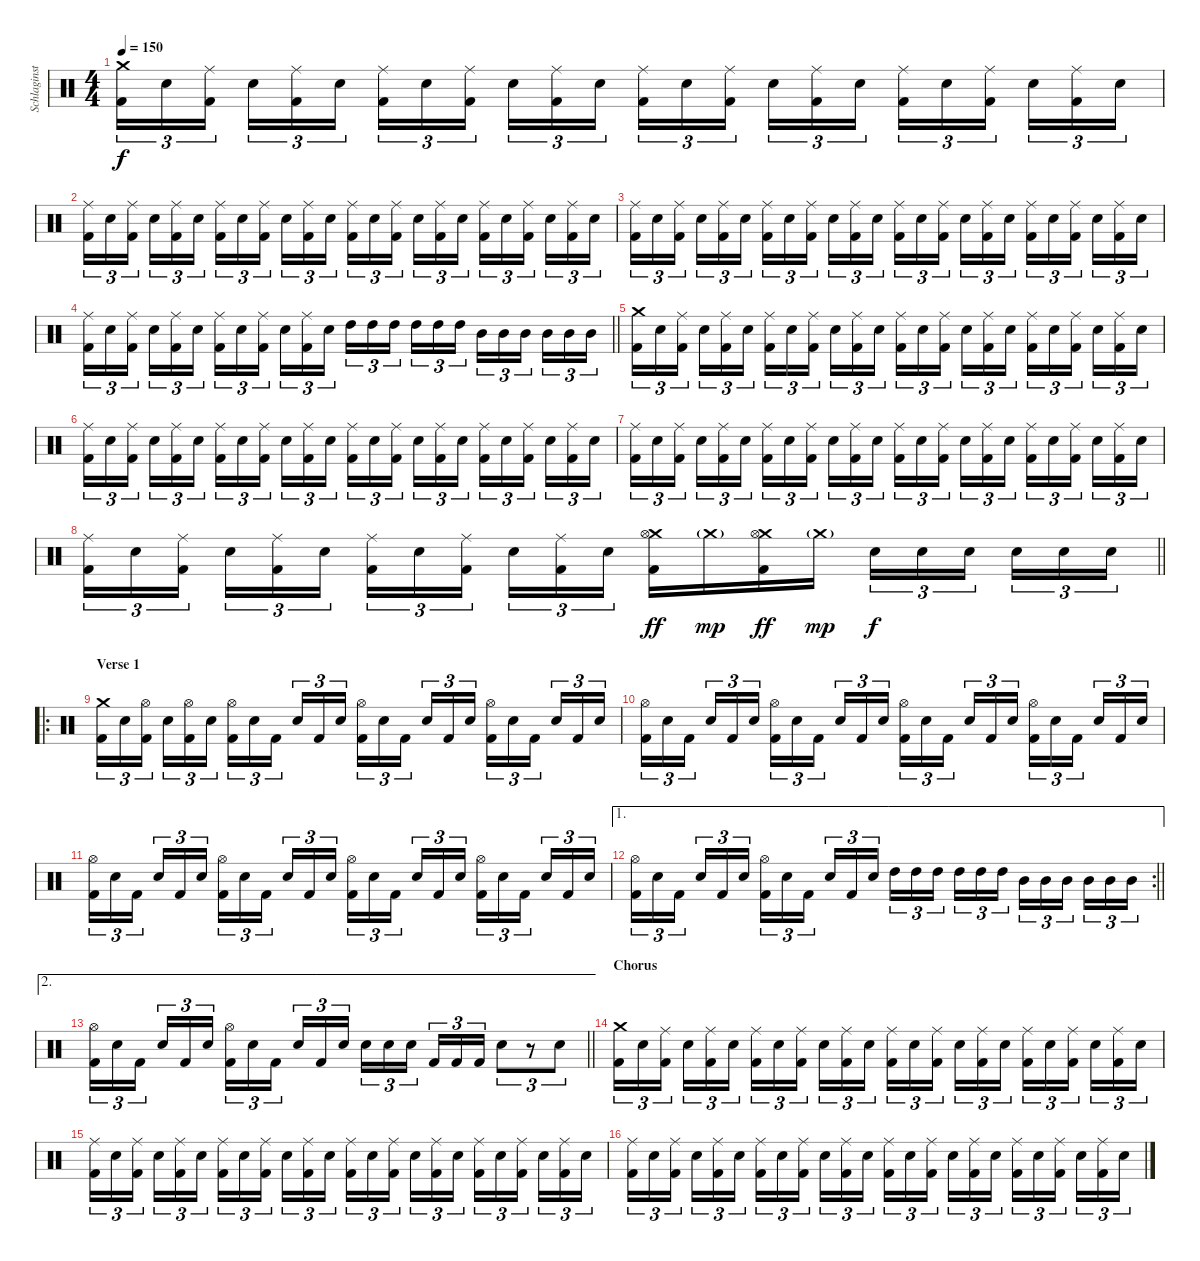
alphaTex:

\track ("Schlaginstrumente - Auswahl" "Schlaginst") {instrument percussion}
\staff {score}
\articulation defaults
\ts (4 4)
\tempo 150
\clef neutral
\ks c
("Crash medium (hit)" "Kick (hit) 2").16{tu (3 2) dy f} "Electric Snare (hit)".16{tu (3 2)} ("Ride (middle)" "Kick (hit) 2").16{tu (3 2) beam splitsecondary} "Electric Snare (hit)".16{tu (3 2)} ("Ride (middle)" "Kick (hit) 2").16{tu (3 2)} "Electric Snare (hit)".16{tu (3 2)} ("Ride (middle)" "Kick (hit) 2").16{tu (3 2)} "Electric Snare (hit)".16{tu (3 2)} ("Ride (middle)" "Kick (hit) 2").16{tu (3 2) beam splitsecondary} "Electric Snare (hit)".16{tu (3 2)} ("Ride (middle)" "Kick (hit) 2").16{tu (3 2)} "Electric Snare (hit)".16{tu (3 2)} ("Ride (middle)" "Kick (hit) 2").16{tu (3 2)} "Electric Snare (hit)".16{tu (3 2)} ("Ride (middle)" "Kick (hit) 2").16{tu (3 2) beam splitsecondary} "Electric Snare (hit)".16{tu (3 2)} ("Ride (middle)" "Kick (hit) 2").16{tu (3 2)} "Electric Snare (hit)".16{tu (3 2)} ("Ride (middle)" "Kick (hit) 2").16{tu (3 2)} "Electric Snare (hit)".16{tu (3 2)} ("Ride (middle)" "Kick (hit) 2").16{tu (3 2) beam splitsecondary} "Electric Snare (hit)".16{tu (3 2)} ("Ride (middle)" "Kick (hit) 2").16{tu (3 2)} "Electric Snare (hit)".16{tu (3 2)} |
("Ride (middle)" "Kick (hit) 2").16{tu (3 2)} "Electric Snare (hit)".16{tu (3 2)} ("Ride (middle)" "Kick (hit) 2").16{tu (3 2) beam splitsecondary} "Electric Snare (hit)".16{tu (3 2)} ("Ride (middle)" "Kick (hit) 2").16{tu (3 2)} "Electric Snare (hit)".16{tu (3 2)} ("Ride (middle)" "Kick (hit) 2").16{tu (3 2)} "Electric Snare (hit)".16{tu (3 2)} ("Ride (middle)" "Kick (hit) 2").16{tu (3 2) beam splitsecondary} "Electric Snare (hit)".16{tu (3 2)} ("Ride (middle)" "Kick (hit) 2").16{tu (3 2)} "Electric Snare (hit)".16{tu (3 2)} ("Ride (middle)" "Kick (hit) 2").16{tu (3 2)} "Electric Snare (hit)".16{tu (3 2)} ("Ride (middle)" "Kick (hit) 2").16{tu (3 2) beam splitsecondary} "Electric Snare (hit)".16{tu (3 2)} ("Ride (middle)" "Kick (hit) 2").16{tu (3 2)} "Electric Snare (hit)".16{tu (3 2)} ("Ride (middle)" "Kick (hit) 2").16{tu (3 2)} "Electric Snare (hit)".16{tu (3 2)} ("Ride (middle)" "Kick (hit) 2").16{tu (3 2) beam splitsecondary} "Electric Snare (hit)".16{tu (3 2)} ("Ride (middle)" "Kick (hit) 2").16{tu (3 2)} "Electric Snare (hit)".16{tu (3 2)} |
("Ride (middle)" "Kick (hit) 2").16{tu (3 2)} "Electric Snare (hit)".16{tu (3 2)} ("Ride (middle)" "Kick (hit) 2").16{tu (3 2) beam splitsecondary} "Electric Snare (hit)".16{tu (3 2)} ("Ride (middle)" "Kick (hit) 2").16{tu (3 2)} "Electric Snare (hit)".16{tu (3 2)} ("Ride (middle)" "Kick (hit) 2").16{tu (3 2)} "Electric Snare (hit)".16{tu (3 2)} ("Ride (middle)" "Kick (hit) 2").16{tu (3 2) beam splitsecondary} "Electric Snare (hit)".16{tu (3 2)} ("Ride (middle)" "Kick (hit) 2").16{tu (3 2)} "Electric Snare (hit)".16{tu (3 2)} ("Ride (middle)" "Kick (hit) 2").16{tu (3 2)} "Electric Snare (hit)".16{tu (3 2)} ("Ride (middle)" "Kick (hit) 2").16{tu (3 2) beam splitsecondary} "Electric Snare (hit)".16{tu (3 2)} ("Ride (middle)" "Kick (hit) 2").16{tu (3 2)} "Electric Snare (hit)".16{tu (3 2)} ("Ride (middle)" "Kick (hit) 2").16{tu (3 2)} "Electric Snare (hit)".16{tu (3 2)} ("Ride (middle)" "Kick (hit) 2").16{tu (3 2) beam splitsecondary} "Electric Snare (hit)".16{tu (3 2)} ("Ride (middle)" "Kick (hit) 2").16{tu (3 2)} "Electric Snare (hit)".16{tu (3 2)} |
\barLineRight lightlight
("Ride (middle)" "Kick (hit) 2").16{tu (3 2)} "Electric Snare (hit)".16{tu (3 2)} ("Ride (middle)" "Kick (hit) 2").16{tu (3 2) beam splitsecondary} "Electric Snare (hit)".16{tu (3 2)} ("Ride (middle)" "Kick (hit) 2").16{tu (3 2)} "Electric Snare (hit)".16{tu (3 2)} ("Ride (middle)" "Kick (hit) 2").16{tu (3 2)} "Electric Snare (hit)".16{tu (3 2)} ("Ride (middle)" "Kick (hit) 2").16{tu (3 2) beam splitsecondary} "Electric Snare (hit)".16{tu (3 2)} ("Ride (middle)" "Kick (hit) 2").16{tu (3 2)} "Electric Snare (hit)".16{tu (3 2)} "High Tom (hit)".16{tu (3 2)} "High Tom (hit)".16{tu (3 2)} "High Tom (hit)".16{tu (3 2) beam splitsecondary} "High Tom (hit)".16{tu (3 2)} "High Tom (hit)".16{tu (3 2)} "High Tom (hit)".16{tu (3 2)} "Mid Tom (hit)".16{tu (3 2)} "Mid Tom (hit)".16{tu (3 2)} "Mid Tom (hit)".16{tu (3 2) beam splitsecondary} "Mid Tom (hit)".16{tu (3 2)} "Mid Tom (hit)".16{tu (3 2)} "Mid Tom (hit)".16{tu (3 2)} |
("Crash medium (hit)" "Kick (hit) 2").16{tu (3 2)} "Electric Snare (hit)".16{tu (3 2)} ("Ride (middle)" "Kick (hit) 2").16{tu (3 2) beam splitsecondary} "Electric Snare (hit)".16{tu (3 2)} ("Ride (middle)" "Kick (hit) 2").16{tu (3 2)} "Electric Snare (hit)".16{tu (3 2)} ("Ride (middle)" "Kick (hit) 2").16{tu (3 2)} "Electric Snare (hit)".16{tu (3 2)} ("Ride (middle)" "Kick (hit) 2").16{tu (3 2) beam splitsecondary} "Electric Snare (hit)".16{tu (3 2)} ("Ride (middle)" "Kick (hit) 2").16{tu (3 2)} "Electric Snare (hit)".16{tu (3 2)} ("Ride (middle)" "Kick (hit) 2").16{tu (3 2)} "Electric Snare (hit)".16{tu (3 2)} ("Ride (middle)" "Kick (hit) 2").16{tu (3 2) beam splitsecondary} "Electric Snare (hit)".16{tu (3 2)} ("Ride (middle)" "Kick (hit) 2").16{tu (3 2)} "Electric Snare (hit)".16{tu (3 2)} ("Ride (middle)" "Kick (hit) 2").16{tu (3 2)} "Electric Snare (hit)".16{tu (3 2)} ("Ride (middle)" "Kick (hit) 2").16{tu (3 2) beam splitsecondary} "Electric Snare (hit)".16{tu (3 2)} ("Ride (middle)" "Kick (hit) 2").16{tu (3 2)} "Electric Snare (hit)".16{tu (3 2)} |
("Ride (middle)" "Kick (hit) 2").16{tu (3 2)} "Electric Snare (hit)".16{tu (3 2)} ("Ride (middle)" "Kick (hit) 2").16{tu (3 2) beam splitsecondary} "Electric Snare (hit)".16{tu (3 2)} ("Ride (middle)" "Kick (hit) 2").16{tu (3 2)} "Electric Snare (hit)".16{tu (3 2)} ("Ride (middle)" "Kick (hit) 2").16{tu (3 2)} "Electric Snare (hit)".16{tu (3 2)} ("Ride (middle)" "Kick (hit) 2").16{tu (3 2) beam splitsecondary} "Electric Snare (hit)".16{tu (3 2)} ("Ride (middle)" "Kick (hit) 2").16{tu (3 2)} "Electric Snare (hit)".16{tu (3 2)} ("Ride (middle)" "Kick (hit) 2").16{tu (3 2)} "Electric Snare (hit)".16{tu (3 2)} ("Ride (middle)" "Kick (hit) 2").16{tu (3 2) beam splitsecondary} "Electric Snare (hit)".16{tu (3 2)} ("Ride (middle)" "Kick (hit) 2").16{tu (3 2)} "Electric Snare (hit)".16{tu (3 2)} ("Ride (middle)" "Kick (hit) 2").16{tu (3 2)} "Electric Snare (hit)".16{tu (3 2)} ("Ride (middle)" "Kick (hit) 2").16{tu (3 2) beam splitsecondary} "Electric Snare (hit)".16{tu (3 2)} ("Ride (middle)" "Kick (hit) 2").16{tu (3 2)} "Electric Snare (hit)".16{tu (3 2)} |
("Ride (middle)" "Kick (hit) 2").16{tu (3 2)} "Electric Snare (hit)".16{tu (3 2)} ("Ride (middle)" "Kick (hit) 2").16{tu (3 2) beam splitsecondary} "Electric Snare (hit)".16{tu (3 2)} ("Ride (middle)" "Kick (hit) 2").16{tu (3 2)} "Electric Snare (hit)".16{tu (3 2)} ("Ride (middle)" "Kick (hit) 2").16{tu (3 2)} "Electric Snare (hit)".16{tu (3 2)} ("Ride (middle)" "Kick (hit) 2").16{tu (3 2) beam splitsecondary} "Electric Snare (hit)".16{tu (3 2)} ("Ride (middle)" "Kick (hit) 2").16{tu (3 2)} "Electric Snare (hit)".16{tu (3 2)} ("Ride (middle)" "Kick (hit) 2").16{tu (3 2)} "Electric Snare (hit)".16{tu (3 2)} ("Ride (middle)" "Kick (hit) 2").16{tu (3 2) beam splitsecondary} "Electric Snare (hit)".16{tu (3 2)} ("Ride (middle)" "Kick (hit) 2").16{tu (3 2)} "Electric Snare (hit)".16{tu (3 2)} ("Ride (middle)" "Kick (hit) 2").16{tu (3 2)} "Electric Snare (hit)".16{tu (3 2)} ("Ride (middle)" "Kick (hit) 2").16{tu (3 2) beam splitsecondary} "Electric Snare (hit)".16{tu (3 2)} ("Ride (middle)" "Kick (hit) 2").16{tu (3 2)} "Electric Snare (hit)".16{tu (3 2)} |
\barLineRight lightlight
("Ride (middle)" "Kick (hit) 2").16{tu (3 2)} "Electric Snare (hit)".16{tu (3 2)} ("Ride (middle)" "Kick (hit) 2").16{tu (3 2) beam splitsecondary} "Electric Snare (hit)".16{tu (3 2)} ("Ride (middle)" "Kick (hit) 2").16{tu (3 2)} "Electric Snare (hit)".16{tu (3 2)} ("Ride (middle)" "Kick (hit) 2").16{tu (3 2)} "Electric Snare (hit)".16{tu (3 2)} ("Ride (middle)" "Kick (hit) 2").16{tu (3 2) beam splitsecondary} "Electric Snare (hit)".16{tu (3 2)} ("Ride (middle)" "Kick (hit) 2").16{tu (3 2)} "Electric Snare (hit)".16{tu (3 2)} ("Crash medium (hit)" "Hi-Hat (open)" "Kick (hit) 2").16{dy ff} "Crash medium (hit)"{g}.16{dy mp} ("Crash medium (hit)" "Hi-Hat (open)" "Kick (hit) 2").16{dy ff} "Crash medium (hit)"{g}.16{dy mp} "Electric Snare (hit)".16{tu (3 2) dy f} "Electric Snare (hit)".16{tu (3 2)} "Electric Snare (hit)".16{tu (3 2) beam splitsecondary} "Electric Snare (hit)".16{tu (3 2)} "Electric Snare (hit)".16{tu (3 2)} "Electric Snare (hit)".16{tu (3 2)} |
\ro
\section ("" "Verse 1")
("Crash medium (hit)" "Kick (hit) 2").16{tu (3 2)} "Electric Snare (hit)".16{tu (3 2)} ("Hi-Hat (open)" "Kick (hit) 2").16{tu (3 2) beam splitsecondary} "Electric Snare (hit)".16{tu (3 2)} ("Hi-Hat (open)" "Kick (hit) 2").16{tu (3 2)} "Electric Snare (hit)".16{tu (3 2)} ("Hi-Hat (open)" "Kick (hit) 2").16{tu (3 2)} "Electric Snare (hit)".16{tu (3 2)} "Kick (hit) 2".16{tu (3 2) beam splitsecondary} "Electric Snare (hit)".16{tu (3 2)} "Kick (hit) 2".16{tu (3 2)} "Electric Snare (hit)".16{tu (3 2)} ("Hi-Hat (open)" "Kick (hit) 2").16{tu (3 2)} "Electric Snare (hit)".16{tu (3 2)} "Kick (hit) 2".16{tu (3 2) beam splitsecondary} "Electric Snare (hit)".16{tu (3 2)} "Kick (hit) 2".16{tu (3 2)} "Electric Snare (hit)".16{tu (3 2)} ("Hi-Hat (open)" "Kick (hit) 2").16{tu (3 2)} "Electric Snare (hit)".16{tu (3 2)} "Kick (hit) 2".16{tu (3 2) beam splitsecondary} "Electric Snare (hit)".16{tu (3 2)} "Kick (hit) 2".16{tu (3 2)} "Electric Snare (hit)".16{tu (3 2)} |
("Hi-Hat (open)" "Kick (hit) 2").16{tu (3 2)} "Electric Snare (hit)".16{tu (3 2)} "Kick (hit) 2".16{tu (3 2) beam splitsecondary} "Electric Snare (hit)".16{tu (3 2)} "Kick (hit) 2".16{tu (3 2)} "Electric Snare (hit)".16{tu (3 2)} ("Hi-Hat (open)" "Kick (hit) 2").16{tu (3 2)} "Electric Snare (hit)".16{tu (3 2)} "Kick (hit) 2".16{tu (3 2) beam splitsecondary} "Electric Snare (hit)".16{tu (3 2)} "Kick (hit) 2".16{tu (3 2)} "Electric Snare (hit)".16{tu (3 2)} ("Hi-Hat (open)" "Kick (hit) 2").16{tu (3 2)} "Electric Snare (hit)".16{tu (3 2)} "Kick (hit) 2".16{tu (3 2) beam splitsecondary} "Electric Snare (hit)".16{tu (3 2)} "Kick (hit) 2".16{tu (3 2)} "Electric Snare (hit)".16{tu (3 2)} ("Hi-Hat (open)" "Kick (hit) 2").16{tu (3 2)} "Electric Snare (hit)".16{tu (3 2)} "Kick (hit) 2".16{tu (3 2) beam splitsecondary} "Electric Snare (hit)".16{tu (3 2)} "Kick (hit) 2".16{tu (3 2)} "Electric Snare (hit)".16{tu (3 2)} |
("Hi-Hat (open)" "Kick (hit) 2").16{tu (3 2)} "Electric Snare (hit)".16{tu (3 2)} "Kick (hit) 2".16{tu (3 2) beam splitsecondary} "Electric Snare (hit)".16{tu (3 2)} "Kick (hit) 2".16{tu (3 2)} "Electric Snare (hit)".16{tu (3 2)} ("Hi-Hat (open)" "Kick (hit) 2").16{tu (3 2)} "Electric Snare (hit)".16{tu (3 2)} "Kick (hit) 2".16{tu (3 2) beam splitsecondary} "Electric Snare (hit)".16{tu (3 2)} "Kick (hit) 2".16{tu (3 2)} "Electric Snare (hit)".16{tu (3 2)} ("Hi-Hat (open)" "Kick (hit) 2").16{tu (3 2)} "Electric Snare (hit)".16{tu (3 2)} "Kick (hit) 2".16{tu (3 2) beam splitsecondary} "Electric Snare (hit)".16{tu (3 2)} "Kick (hit) 2".16{tu (3 2)} "Electric Snare (hit)".16{tu (3 2)} ("Hi-Hat (open)" "Kick (hit) 2").16{tu (3 2)} "Electric Snare (hit)".16{tu (3 2)} "Kick (hit) 2".16{tu (3 2) beam splitsecondary} "Electric Snare (hit)".16{tu (3 2)} "Kick (hit) 2".16{tu (3 2)} "Electric Snare (hit)".16{tu (3 2)} |
\ae 1
\rc 2
\barLineRight lightlight
("Hi-Hat (open)" "Kick (hit) 2").16{tu (3 2)} "Electric Snare (hit)".16{tu (3 2)} "Kick (hit) 2".16{tu (3 2) beam splitsecondary} "Electric Snare (hit)".16{tu (3 2)} "Kick (hit) 2".16{tu (3 2)} "Electric Snare (hit)".16{tu (3 2)} ("Hi-Hat (open)" "Kick (hit) 2").16{tu (3 2)} "Electric Snare (hit)".16{tu (3 2)} "Kick (hit) 2".16{tu (3 2) beam splitsecondary} "Electric Snare (hit)".16{tu (3 2)} "Kick (hit) 2".16{tu (3 2)} "Electric Snare (hit)".16{tu (3 2)} "High Tom (hit)".16{tu (3 2)} "High Tom (hit)".16{tu (3 2)} "High Tom (hit)".16{tu (3 2) beam splitsecondary} "High Tom (hit)".16{tu (3 2)} "High Tom (hit)".16{tu (3 2)} "High Tom (hit)".16{tu (3 2)} "Mid Tom (hit)".16{tu (3 2)} "Mid Tom (hit)".16{tu (3 2)} "Mid Tom (hit)".16{tu (3 2) beam splitsecondary} "Mid Tom (hit)".16{tu (3 2)} "Mid Tom (hit)".16{tu (3 2)} "Mid Tom (hit)".16{tu (3 2)} |
\ae 2
\barLineRight lightlight
("Hi-Hat (open)" "Kick (hit) 2").16{tu (3 2)} "Electric Snare (hit)".16{tu (3 2)} "Kick (hit) 2".16{tu (3 2) beam splitsecondary} "Electric Snare (hit)".16{tu (3 2)} "Kick (hit) 2".16{tu (3 2)} "Electric Snare (hit)".16{tu (3 2)} ("Hi-Hat (open)" "Kick (hit) 2").16{tu (3 2)} "Electric Snare (hit)".16{tu (3 2)} "Kick (hit) 2".16{tu (3 2) beam splitsecondary} "Electric Snare (hit)".16{tu (3 2)} "Kick (hit) 2".16{tu (3 2)} "Electric Snare (hit)".16{tu (3 2)} "Electric Snare (hit)".16{tu (3 2)} "Electric Snare (hit)".16{tu (3 2)} "Electric Snare (hit)".16{tu (3 2) beam splitsecondary} "Kick (hit) 2".16{tu (3 2)} "Kick (hit) 2".16{tu (3 2)} "Kick (hit) 2".16{tu (3 2)} "Electric Snare (hit)".8{tu (3 2)} r.8{tu (3 2)} "Electric Snare (hit)".8{tu (3 2)} |
\section ("" "Chorus")
("Crash medium (hit)" "Kick (hit) 2").16{tu (3 2)} "Electric Snare (hit)".16{tu (3 2)} ("Ride (middle)" "Kick (hit) 2").16{tu (3 2) beam splitsecondary} "Electric Snare (hit)".16{tu (3 2)} ("Ride (middle)" "Kick (hit) 2").16{tu (3 2)} "Electric Snare (hit)".16{tu (3 2)} ("Ride (middle)" "Kick (hit) 2").16{tu (3 2)} "Electric Snare (hit)".16{tu (3 2)} ("Ride (middle)" "Kick (hit) 2").16{tu (3 2) beam splitsecondary} "Electric Snare (hit)".16{tu (3 2)} ("Ride (middle)" "Kick (hit) 2").16{tu (3 2)} "Electric Snare (hit)".16{tu (3 2)} ("Ride (middle)" "Kick (hit) 2").16{tu (3 2)} "Electric Snare (hit)".16{tu (3 2)} ("Ride (middle)" "Kick (hit) 2").16{tu (3 2) beam splitsecondary} "Electric Snare (hit)".16{tu (3 2)} ("Ride (middle)" "Kick (hit) 2").16{tu (3 2)} "Electric Snare (hit)".16{tu (3 2)} ("Ride (middle)" "Kick (hit) 2").16{tu (3 2)} "Electric Snare (hit)".16{tu (3 2)} ("Ride (middle)" "Kick (hit) 2").16{tu (3 2) beam splitsecondary} "Electric Snare (hit)".16{tu (3 2)} ("Ride (middle)" "Kick (hit) 2").16{tu (3 2)} "Electric Snare (hit)".16{tu (3 2)} |
("Ride (middle)" "Kick (hit) 2").16{tu (3 2)} "Electric Snare (hit)".16{tu (3 2)} ("Ride (middle)" "Kick (hit) 2").16{tu (3 2) beam splitsecondary} "Electric Snare (hit)".16{tu (3 2)} ("Ride (middle)" "Kick (hit) 2").16{tu (3 2)} "Electric Snare (hit)".16{tu (3 2)} ("Ride (middle)" "Kick (hit) 2").16{tu (3 2)} "Electric Snare (hit)".16{tu (3 2)} ("Ride (middle)" "Kick (hit) 2").16{tu (3 2) beam splitsecondary} "Electric Snare (hit)".16{tu (3 2)} ("Ride (middle)" "Kick (hit) 2").16{tu (3 2)} "Electric Snare (hit)".16{tu (3 2)} ("Ride (middle)" "Kick (hit) 2").16{tu (3 2)} "Electric Snare (hit)".16{tu (3 2)} ("Ride (middle)" "Kick (hit) 2").16{tu (3 2) beam splitsecondary} "Electric Snare (hit)".16{tu (3 2)} ("Ride (middle)" "Kick (hit) 2").16{tu (3 2)} "Electric Snare (hit)".16{tu (3 2)} ("Ride (middle)" "Kick (hit) 2").16{tu (3 2)} "Electric Snare (hit)".16{tu (3 2)} ("Ride (middle)" "Kick (hit) 2").16{tu (3 2) beam splitsecondary} "Electric Snare (hit)".16{tu (3 2)} ("Ride (middle)" "Kick (hit) 2").16{tu (3 2)} "Electric Snare (hit)".16{tu (3 2)} |
("Ride (middle)" "Kick (hit) 2").16{tu (3 2)} "Electric Snare (hit)".16{tu (3 2)} ("Ride (middle)" "Kick (hit) 2").16{tu (3 2) beam splitsecondary} "Electric Snare (hit)".16{tu (3 2)} ("Ride (middle)" "Kick (hit) 2").16{tu (3 2)} "Electric Snare (hit)".16{tu (3 2)} ("Ride (middle)" "Kick (hit) 2").16{tu (3 2)} "Electric Snare (hit)".16{tu (3 2)} ("Ride (middle)" "Kick (hit) 2").16{tu (3 2) beam splitsecondary} "Electric Snare (hit)".16{tu (3 2)} ("Ride (middle)" "Kick (hit) 2").16{tu (3 2)} "Electric Snare (hit)".16{tu (3 2)} ("Ride (middle)" "Kick (hit) 2").16{tu (3 2)} "Electric Snare (hit)".16{tu (3 2)} ("Ride (middle)" "Kick (hit) 2").16{tu (3 2) beam splitsecondary} "Electric Snare (hit)".16{tu (3 2)} ("Ride (middle)" "Kick (hit) 2").16{tu (3 2)} "Electric Snare (hit)".16{tu (3 2)} ("Ride (middle)" "Kick (hit) 2").16{tu (3 2)} "Electric Snare (hit)".16{tu (3 2)} ("Ride (middle)" "Kick (hit) 2").16{tu (3 2) beam splitsecondary} "Electric Snare (hit)".16{tu (3 2)} ("Ride (middle)" "Kick (hit) 2").16{tu (3 2)} "Electric Snare (hit)".16{tu (3 2)}
